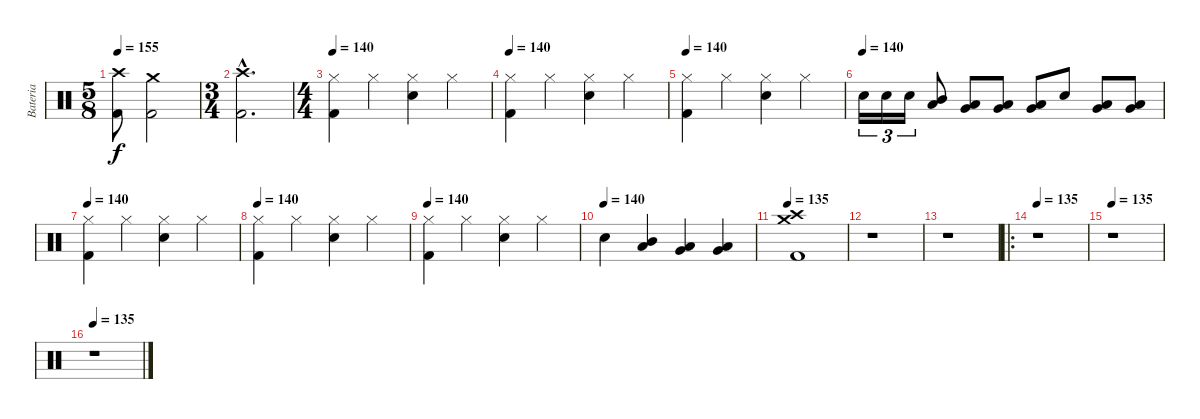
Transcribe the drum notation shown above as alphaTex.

\track ("Bateria" "Bateria") {instrument percussion}
\staff {score}
\articulation defaults
\ts (5 8)
\tempo 155
\clef neutral
\ks c
("Kick (hit) 2"{t} "Crash high (hit)"{t}).8{dy f} ("Kick (hit) 2" "Crash medium (hit)").2 |
\ts (3 4)
("Kick (hit) 2"{hac} "Crash high (hit)"{hac}).2{d} |
\ts (4 4)
\tempo 140
("Hi-Hat (closed)" "Kick (hit) 2").4 "Hi-Hat (closed)".4 ("Hi-Hat (closed)" "Electric Snare (hit)").4 "Hi-Hat (closed)".4 |
\tempo 140
("Hi-Hat (closed)" "Kick (hit) 2").4 "Hi-Hat (closed)".4 ("Hi-Hat (closed)" "Electric Snare (hit)").4 "Hi-Hat (closed)".4 |
\tempo 140
("Hi-Hat (closed)" "Kick (hit) 2").4 "Hi-Hat (closed)".4 ("Hi-Hat (closed)" "Electric Snare (hit)").4 "Hi-Hat (closed)".4 |
\tempo (140)
"Electric Snare (hit)".16{tu (3 2)} "Electric Snare (hit)".16{tu (3 2)} "Electric Snare (hit)".16{tu (3 2)} ("Mid Tom (hit)" "Low Tom (hit)").8 ("Low Tom (hit)" "Very Low Tom (hit)").8 ("Low Tom (hit)" "Very Low Tom (hit)").8 ("Very Low Tom (hit)" "Low Floor Tom (hit)").8 "Electric Snare (hit)".8 ("Low Tom (hit)" "Very Low Tom (hit)").8 ("Very Low Tom (hit)" "Low Floor Tom (hit)").8 |
\tempo 140
("Hi-Hat (closed)" "Kick (hit) 2").4 "Hi-Hat (closed)".4 ("Hi-Hat (closed)" "Electric Snare (hit)").4 "Hi-Hat (closed)".4 |
\tempo 140
("Hi-Hat (closed)" "Kick (hit) 2").4 "Hi-Hat (closed)".4 ("Hi-Hat (closed)" "Electric Snare (hit)").4 "Hi-Hat (closed)".4 |
\tempo 140
("Hi-Hat (closed)" "Kick (hit) 2").4 "Hi-Hat (closed)".4 ("Hi-Hat (closed)" "Electric Snare (hit)").4 "Hi-Hat (closed)".4 |
\tempo (140)
"Electric Snare (hit)".4 ("Mid Tom (hit)" "Low Tom (hit)").4 ("Low Tom (hit)" "Very Low Tom (hit)").4 ("Very Low Tom (hit)" "Low Floor Tom (hit)").4 |
\tempo 140
\tempo 135
("Crash medium (hit)" "Crash high (hit)" "Kick (hit) 2").1 |
r.1 |
r.1 |
\ro
\tempo 135
r.1 |
\tempo 135
r.1 |
\tempo 135
r.1
